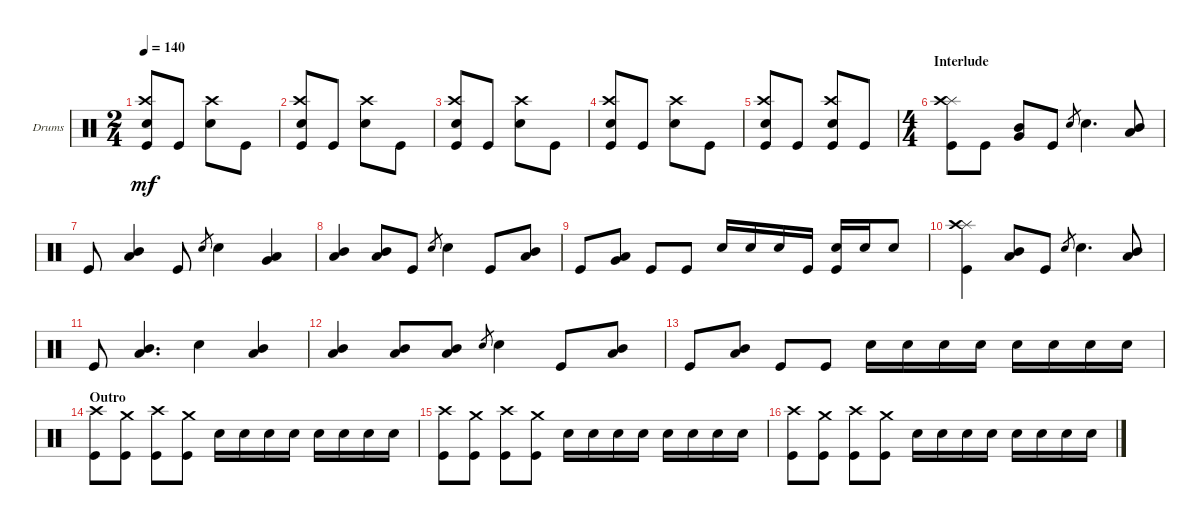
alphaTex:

\bracketExtendMode groupsimilarinstruments
\firstSystemTrackNameOrientation horizontal
\otherSystemsTrackNameOrientation horizontal
\track ("Drumkit" "Drums") {instrument percussion}
\staff {score}
\articulation defaults
\ts (2 4)
\tempo 140
\clef neutral
\ks c
("Snare (hit) 2" "Crash high (hit)" "Kick (hit)").8{dy mf} "Kick (hit)".8 ("Snare (hit) 2" "Crash high (hit)").8 "Kick (hit)".8 |
("Snare (hit) 2" "Crash high (hit)" "Kick (hit)").8 "Kick (hit)".8 ("Snare (hit) 2" "Crash high (hit)").8 "Kick (hit)".8 |
("Snare (hit) 2" "Crash high (hit)" "Kick (hit)").8 "Kick (hit)".8 ("Snare (hit) 2" "Crash high (hit)").8 "Kick (hit)".8 |
("Snare (hit) 2" "Crash high (hit)" "Kick (hit)").8 "Kick (hit)".8 ("Snare (hit) 2" "Crash high (hit)").8 "Kick (hit)".8 |
("Snare (hit) 2" "Crash high (hit)" "Kick (hit)").8 "Kick (hit)".8 ("Snare (hit) 2" "Crash high (hit)" "Kick (hit)").8 "Kick (hit)".8 |
\ts (4 4)
\section ("" "Interlude")
("Kick (hit)" "Splash (hit)" "Crash high (hit)").8 "Kick (hit)".8 ("Very Low Tom (hit)" "Mid Tom (hit)").8 "Kick (hit)".8 "Snare (hit) 2".8{gr} "Snare (hit) 2".4{d} ("Low Tom (hit)" "Mid Tom (hit)").8 |
"Kick (hit)".8 ("Low Tom (hit)" "Mid Tom (hit)").4 "Kick (hit)".8 "Snare (hit) 2".8{gr} "Snare (hit) 2".4 ("Very Low Tom (hit)" "Low Tom (hit)").4 |
("Low Tom (hit)" "Mid Tom (hit)").4 ("Low Tom (hit)" "Mid Tom (hit)").8 "Kick (hit)".8 "Snare (hit) 2".8{gr} "Snare (hit) 2".4 "Kick (hit)".8 ("Mid Tom (hit)" "Low Tom (hit)").8 |
"Kick (hit)".8 ("Very Low Tom (hit)" "Low Tom (hit)").8 "Kick (hit)".8 "Kick (hit)".8 "Snare (hit) 2".16 "Snare (hit) 2".16 "Snare (hit) 2".16 "Kick (hit)".16 ("Snare (hit) 2" "Kick (hit)").16 "Snare (hit) 2".16 "Snare (hit) 2".8 |
("Kick (hit)" "Splash (hit)" "Crash high (hit)").4 ("Low Tom (hit)" "Mid Tom (hit)").8 "Kick (hit)".8 "Snare (hit) 2".8{gr} "Snare (hit) 2".4{d} ("Low Tom (hit)" "Mid Tom (hit)").8 |
"Kick (hit)".8 ("Low Tom (hit)" "Mid Tom (hit)").4{d} "Snare (hit) 2".4 ("Low Tom (hit)" "Mid Tom (hit)").4 |
("Low Tom (hit)" "Mid Tom (hit)").4 ("Low Tom (hit)" "Mid Tom (hit)").8 ("Low Tom (hit)" "Mid Tom (hit)").8 "Snare (hit) 2".8{gr} "Snare (hit) 2".4 "Kick (hit)".8 ("Low Tom (hit)" "Mid Tom (hit)").8 |
"Kick (hit)".8 ("Low Tom (hit)" "Mid Tom (hit)").8 "Kick (hit)".8 "Kick (hit)".8 "Snare (hit) 2".16 "Snare (hit) 2".16 "Snare (hit) 2".16 "Snare (hit) 2".16 "Snare (hit) 2".16 "Snare (hit) 2".16 "Snare (hit) 2".16 "Snare (hit) 2".16 |
\section ("" "Outro")
("Kick (hit)" "Crash high (hit)").8 ("Kick (hit)" "Crash medium (hit)").8 ("Kick (hit)" "Crash high (hit)").8 ("Kick (hit)" "Crash medium (hit)").8 "Snare (hit) 2".16 "Snare (hit) 2".16 "Snare (hit) 2".16 "Snare (hit) 2".16 "Snare (hit) 2".16 "Snare (hit) 2".16 "Snare (hit) 2".16 "Snare (hit) 2".16 |
("Kick (hit)" "Crash high (hit)").8 ("Kick (hit)" "Crash medium (hit)").8 ("Kick (hit)" "Crash high (hit)").8 ("Kick (hit)" "Crash medium (hit)").8 "Snare (hit) 2".16 "Snare (hit) 2".16 "Snare (hit) 2".16 "Snare (hit) 2".16 "Snare (hit) 2".16 "Snare (hit) 2".16 "Snare (hit) 2".16 "Snare (hit) 2".16 |
("Kick (hit)" "Crash high (hit)").8 ("Kick (hit)" "Crash medium (hit)").8 ("Kick (hit)" "Crash high (hit)").8 ("Kick (hit)" "Crash medium (hit)").8 "Snare (hit) 2".16 "Snare (hit) 2".16 "Snare (hit) 2".16 "Snare (hit) 2".16 "Snare (hit) 2".16 "Snare (hit) 2".16 "Snare (hit) 2".16 "Snare (hit) 2".16
